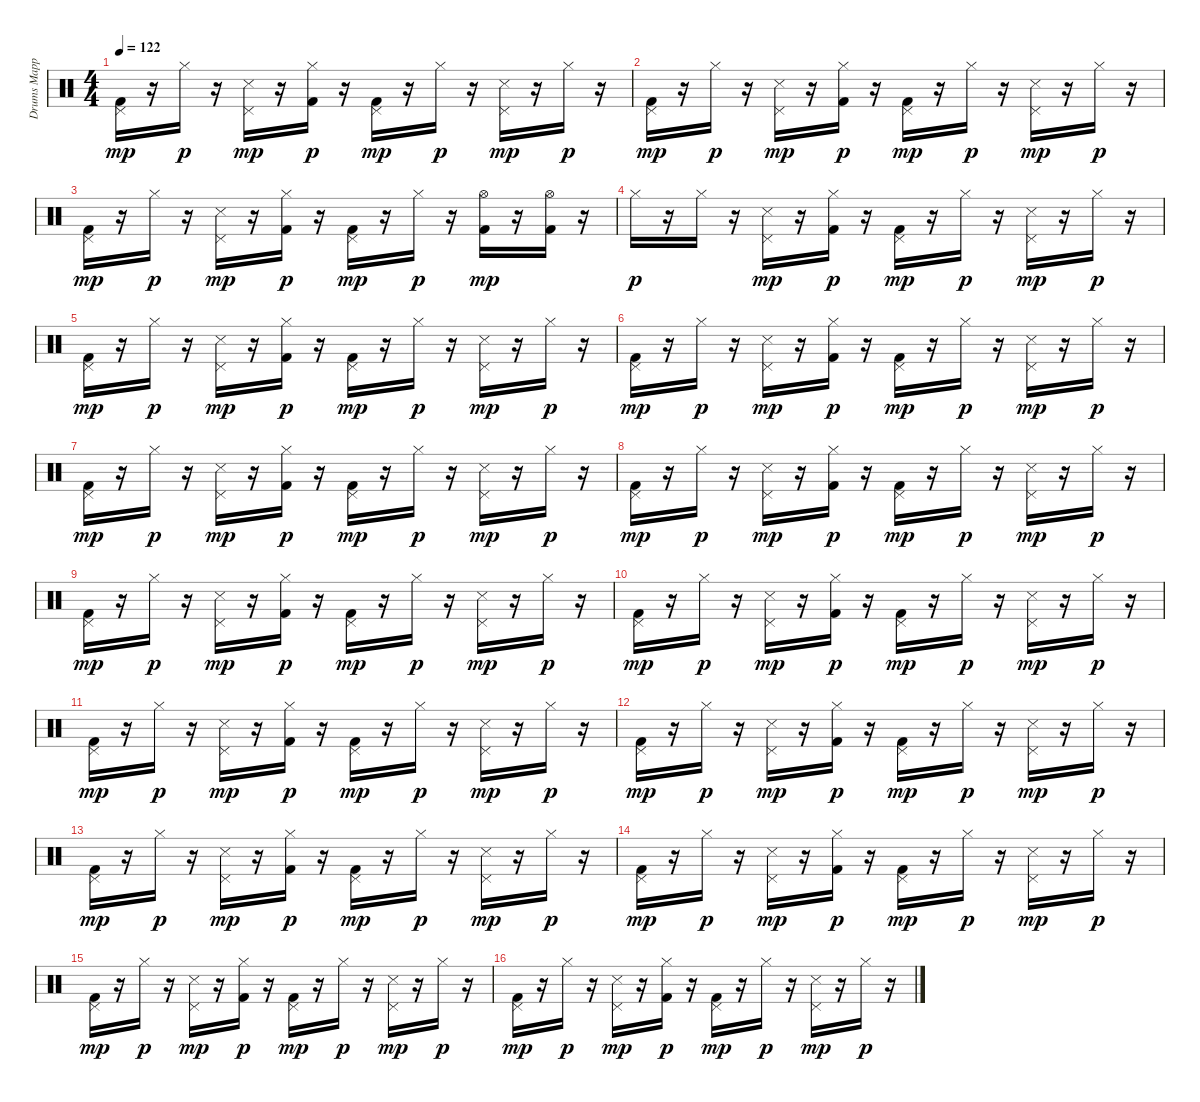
\track ("Drums Mapped*merged" "Drums Mapp") {instrument percussion}
\staff {score}
\articulation defaults
\ts (4 4)
\tempo 122
\clef neutral
\ks c
("Kick (hit) 2" "Pedal Hi-Hat (hit)").16{dy mp} r.16 "Hi-Hat (closed)".16{dy p} r.16 ("Snare (side stick) 3" "Pedal Hi-Hat (hit)").16{dy mp} r.16 ("Kick (hit) 2" "Hi-Hat (closed)").16{dy p} r.16 ("Kick (hit) 2" "Pedal Hi-Hat (hit)").16{dy mp} r.16 "Hi-Hat (closed)".16{dy p} r.16 ("Snare (side stick) 3" "Pedal Hi-Hat (hit)").16{dy mp} r.16 "Hi-Hat (closed)".16{dy p} r.16 |
("Kick (hit) 2" "Pedal Hi-Hat (hit)").16{dy mp} r.16 "Hi-Hat (closed)".16{dy p} r.16 ("Snare (side stick) 3" "Pedal Hi-Hat (hit)").16{dy mp} r.16 ("Kick (hit) 2" "Hi-Hat (closed)").16{dy p} r.16 ("Kick (hit) 2" "Pedal Hi-Hat (hit)").16{dy mp} r.16 "Hi-Hat (closed)".16{dy p} r.16 ("Snare (side stick) 3" "Pedal Hi-Hat (hit)").16{dy mp} r.16 "Hi-Hat (closed)".16{dy p} r.16 |
("Kick (hit) 2" "Pedal Hi-Hat (hit)").16{dy mp} r.16 "Hi-Hat (closed)".16{dy p} r.16 ("Snare (side stick) 3" "Pedal Hi-Hat (hit)").16{dy mp} r.16 ("Kick (hit) 2" "Hi-Hat (closed)").16{dy p} r.16 ("Kick (hit) 2" "Pedal Hi-Hat (hit)").16{dy mp} r.16 "Hi-Hat (closed)".16{dy p} r.16 ("Kick (hit) 2" "Hi-Hat (open)").16{dy mp} r.16 ("Kick (hit) 2" "Hi-Hat (open)").16 r.16 |
"Hi-Hat (closed)".16{dy p} r.16 "Hi-Hat (closed)".16 r.16 ("Snare (side stick) 3" "Pedal Hi-Hat (hit)").16{dy mp} r.16 ("Kick (hit) 2" "Hi-Hat (closed)").16{dy p} r.16 ("Kick (hit) 2" "Pedal Hi-Hat (hit)").16{dy mp} r.16 "Hi-Hat (closed)".16{dy p} r.16 ("Snare (side stick) 3" "Pedal Hi-Hat (hit)").16{dy mp} r.16 "Hi-Hat (closed)".16{dy p} r.16 |
("Kick (hit) 2" "Pedal Hi-Hat (hit)").16{dy mp} r.16 "Hi-Hat (closed)".16{dy p} r.16 ("Snare (side stick) 3" "Pedal Hi-Hat (hit)").16{dy mp} r.16 ("Kick (hit) 2" "Hi-Hat (closed)").16{dy p} r.16 ("Kick (hit) 2" "Pedal Hi-Hat (hit)").16{dy mp} r.16 "Hi-Hat (closed)".16{dy p} r.16 ("Snare (side stick) 3" "Pedal Hi-Hat (hit)").16{dy mp} r.16 "Hi-Hat (closed)".16{dy p} r.16 |
("Kick (hit) 2" "Pedal Hi-Hat (hit)").16{dy mp} r.16 "Hi-Hat (closed)".16{dy p} r.16 ("Snare (side stick) 3" "Pedal Hi-Hat (hit)").16{dy mp} r.16 ("Kick (hit) 2" "Hi-Hat (closed)").16{dy p} r.16 ("Kick (hit) 2" "Pedal Hi-Hat (hit)").16{dy mp} r.16 "Hi-Hat (closed)".16{dy p} r.16 ("Snare (side stick) 3" "Pedal Hi-Hat (hit)").16{dy mp} r.16 "Hi-Hat (closed)".16{dy p} r.16 |
("Kick (hit) 2" "Pedal Hi-Hat (hit)").16{dy mp} r.16 "Hi-Hat (closed)".16{dy p} r.16 ("Snare (side stick) 3" "Pedal Hi-Hat (hit)").16{dy mp} r.16 ("Kick (hit) 2" "Hi-Hat (closed)").16{dy p} r.16 ("Kick (hit) 2" "Pedal Hi-Hat (hit)").16{dy mp} r.16 "Hi-Hat (closed)".16{dy p} r.16 ("Snare (side stick) 3" "Pedal Hi-Hat (hit)").16{dy mp} r.16 "Hi-Hat (closed)".16{dy p} r.16 |
("Kick (hit) 2" "Pedal Hi-Hat (hit)").16{dy mp} r.16 "Hi-Hat (closed)".16{dy p} r.16 ("Snare (side stick) 3" "Pedal Hi-Hat (hit)").16{dy mp} r.16 ("Kick (hit) 2" "Hi-Hat (closed)").16{dy p} r.16 ("Kick (hit) 2" "Pedal Hi-Hat (hit)").16{dy mp} r.16 "Hi-Hat (closed)".16{dy p} r.16 ("Snare (side stick) 3" "Pedal Hi-Hat (hit)").16{dy mp} r.16 "Hi-Hat (closed)".16{dy p} r.16 |
("Kick (hit) 2" "Pedal Hi-Hat (hit)").16{dy mp} r.16 "Hi-Hat (closed)".16{dy p} r.16 ("Snare (side stick) 3" "Pedal Hi-Hat (hit)").16{dy mp} r.16 ("Kick (hit) 2" "Hi-Hat (closed)").16{dy p} r.16 ("Kick (hit) 2" "Pedal Hi-Hat (hit)").16{dy mp} r.16 "Hi-Hat (closed)".16{dy p} r.16 ("Snare (side stick) 3" "Pedal Hi-Hat (hit)").16{dy mp} r.16 "Hi-Hat (closed)".16{dy p} r.16 |
("Kick (hit) 2" "Pedal Hi-Hat (hit)").16{dy mp} r.16 "Hi-Hat (closed)".16{dy p} r.16 ("Snare (side stick) 3" "Pedal Hi-Hat (hit)").16{dy mp} r.16 ("Kick (hit) 2" "Hi-Hat (closed)").16{dy p} r.16 ("Kick (hit) 2" "Pedal Hi-Hat (hit)").16{dy mp} r.16 "Hi-Hat (closed)".16{dy p} r.16 ("Snare (side stick) 3" "Pedal Hi-Hat (hit)").16{dy mp} r.16 "Hi-Hat (closed)".16{dy p} r.16 |
("Kick (hit) 2" "Pedal Hi-Hat (hit)").16{dy mp} r.16 "Hi-Hat (closed)".16{dy p} r.16 ("Snare (side stick) 3" "Pedal Hi-Hat (hit)").16{dy mp} r.16 ("Kick (hit) 2" "Hi-Hat (closed)").16{dy p} r.16 ("Kick (hit) 2" "Pedal Hi-Hat (hit)").16{dy mp} r.16 "Hi-Hat (closed)".16{dy p} r.16 ("Snare (side stick) 3" "Pedal Hi-Hat (hit)").16{dy mp} r.16 "Hi-Hat (closed)".16{dy p} r.16 |
("Kick (hit) 2" "Pedal Hi-Hat (hit)").16{dy mp} r.16 "Hi-Hat (closed)".16{dy p} r.16 ("Snare (side stick) 3" "Pedal Hi-Hat (hit)").16{dy mp} r.16 ("Kick (hit) 2" "Hi-Hat (closed)").16{dy p} r.16 ("Kick (hit) 2" "Pedal Hi-Hat (hit)").16{dy mp} r.16 "Hi-Hat (closed)".16{dy p} r.16 ("Snare (side stick) 3" "Pedal Hi-Hat (hit)").16{dy mp} r.16 "Hi-Hat (closed)".16{dy p} r.16 |
("Kick (hit) 2" "Pedal Hi-Hat (hit)").16{dy mp} r.16 "Hi-Hat (closed)".16{dy p} r.16 ("Snare (side stick) 3" "Pedal Hi-Hat (hit)").16{dy mp} r.16 ("Kick (hit) 2" "Hi-Hat (closed)").16{dy p} r.16 ("Kick (hit) 2" "Pedal Hi-Hat (hit)").16{dy mp} r.16 "Hi-Hat (closed)".16{dy p} r.16 ("Snare (side stick) 3" "Pedal Hi-Hat (hit)").16{dy mp} r.16 "Hi-Hat (closed)".16{dy p} r.16 |
("Kick (hit) 2" "Pedal Hi-Hat (hit)").16{dy mp} r.16 "Hi-Hat (closed)".16{dy p} r.16 ("Snare (side stick) 3" "Pedal Hi-Hat (hit)").16{dy mp} r.16 ("Kick (hit) 2" "Hi-Hat (closed)").16{dy p} r.16 ("Kick (hit) 2" "Pedal Hi-Hat (hit)").16{dy mp} r.16 "Hi-Hat (closed)".16{dy p} r.16 ("Snare (side stick) 3" "Pedal Hi-Hat (hit)").16{dy mp} r.16 "Hi-Hat (closed)".16{dy p} r.16 |
("Kick (hit) 2" "Pedal Hi-Hat (hit)").16{dy mp} r.16 "Hi-Hat (closed)".16{dy p} r.16 ("Snare (side stick) 3" "Pedal Hi-Hat (hit)").16{dy mp} r.16 ("Kick (hit) 2" "Hi-Hat (closed)").16{dy p} r.16 ("Kick (hit) 2" "Pedal Hi-Hat (hit)").16{dy mp} r.16 "Hi-Hat (closed)".16{dy p} r.16 ("Snare (side stick) 3" "Pedal Hi-Hat (hit)").16{dy mp} r.16 "Hi-Hat (closed)".16{dy p} r.16 |
("Kick (hit) 2" "Pedal Hi-Hat (hit)").16{dy mp} r.16 "Hi-Hat (closed)".16{dy p} r.16 ("Snare (side stick) 3" "Pedal Hi-Hat (hit)").16{dy mp} r.16 ("Kick (hit) 2" "Hi-Hat (closed)").16{dy p} r.16 ("Kick (hit) 2" "Pedal Hi-Hat (hit)").16{dy mp} r.16 "Hi-Hat (closed)".16{dy p} r.16 ("Snare (side stick) 3" "Pedal Hi-Hat (hit)").16{dy mp} r.16 "Hi-Hat (closed)".16{dy p} r.16
